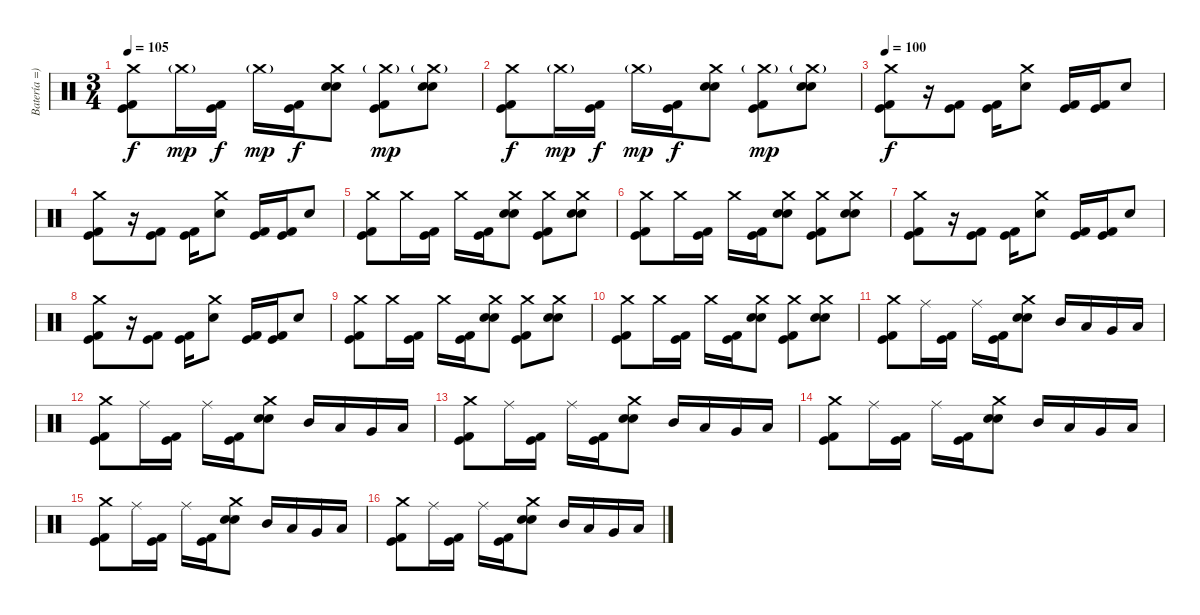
\track ("Batería =)" "Batería =)") {instrument percussion}
\staff {score}
\articulation defaults
\ts (3 4)
\tempo 105
\clef neutral
\ks c
("Crash medium (hit)" "Kick (hit)" "Kick (hit) 2").8{dy f} "Crash medium (hit)"{g}.16{dy mp} ("Kick (hit)" "Kick (hit) 2").16{dy f} "Crash medium (hit)"{g}.16{dy mp} ("Kick (hit)" "Kick (hit) 2").16{dy f} ("Crash medium (hit)" "Snare (hit) 2" "Electric Snare (hit)").8 ("Crash medium (hit)"{g} "Kick (hit)" "Kick (hit) 2").8{dy mp} ("Crash medium (hit)"{g} "Snare (hit) 2" "Electric Snare (hit)").8 |
("Crash medium (hit)" "Kick (hit)" "Kick (hit) 2").8{dy f} "Crash medium (hit)"{g}.16{dy mp} ("Kick (hit)" "Kick (hit) 2").16{dy f} "Crash medium (hit)"{g}.16{dy mp} ("Kick (hit)" "Kick (hit) 2").16{dy f} ("Crash medium (hit)" "Snare (hit) 2" "Electric Snare (hit)").8 ("Crash medium (hit)"{g} "Kick (hit)" "Kick (hit) 2").8{dy mp} ("Crash medium (hit)"{g} "Snare (hit) 2" "Electric Snare (hit)").8 |
\tempo 100
("Crash medium (hit)" "Kick (hit)" "Kick (hit) 2").8{dy f} r.16 ("Kick (hit)" "Kick (hit) 2").8 ("Kick (hit)" "Kick (hit) 2").16 ("Crash medium (hit)" "Electric Snare (hit)").8 ("Kick (hit)" "Kick (hit) 2").16 ("Kick (hit)" "Kick (hit) 2").16 "Electric Snare (hit)".8 |
("Crash medium (hit)" "Kick (hit)" "Kick (hit) 2").8 r.16 ("Kick (hit)" "Kick (hit) 2").8 ("Kick (hit)" "Kick (hit) 2").16 ("Crash medium (hit)" "Electric Snare (hit)").8 ("Kick (hit)" "Kick (hit) 2").16 ("Kick (hit)" "Kick (hit) 2").16 "Electric Snare (hit)".8 |
("Crash medium (hit)" "Kick (hit)" "Kick (hit) 2").8 "Crash medium (hit)".16 ("Kick (hit)" "Kick (hit) 2").16 "Crash medium (hit)".16 ("Kick (hit)" "Kick (hit) 2").16 ("Crash medium (hit)" "Snare (hit) 2" "Electric Snare (hit)").8 ("Crash medium (hit)" "Kick (hit)" "Kick (hit) 2").8 ("Crash medium (hit)" "Snare (hit) 2" "Electric Snare (hit)").8 |
("Crash medium (hit)" "Kick (hit)" "Kick (hit) 2").8 "Crash medium (hit)".16 ("Kick (hit)" "Kick (hit) 2").16 "Crash medium (hit)".16 ("Kick (hit)" "Kick (hit) 2").16 ("Crash medium (hit)" "Snare (hit) 2" "Electric Snare (hit)").8 ("Crash medium (hit)" "Kick (hit)" "Kick (hit) 2").8 ("Crash medium (hit)" "Snare (hit) 2" "Electric Snare (hit)").8 |
("Crash medium (hit)" "Kick (hit)" "Kick (hit) 2").8 r.16 ("Kick (hit)" "Kick (hit) 2").8 ("Kick (hit)" "Kick (hit) 2").16 ("Crash medium (hit)" "Electric Snare (hit)").8 ("Kick (hit)" "Kick (hit) 2").16 ("Kick (hit)" "Kick (hit) 2").16 "Electric Snare (hit)".8 |
("Crash medium (hit)" "Kick (hit)" "Kick (hit) 2").8 r.16 ("Kick (hit)" "Kick (hit) 2").8 ("Kick (hit)" "Kick (hit) 2").16 ("Crash medium (hit)" "Electric Snare (hit)").8 ("Kick (hit)" "Kick (hit) 2").16 ("Kick (hit)" "Kick (hit) 2").16 "Electric Snare (hit)".8 |
("Crash medium (hit)" "Kick (hit)" "Kick (hit) 2").8 "Crash medium (hit)".16 ("Kick (hit)" "Kick (hit) 2").16 "Crash medium (hit)".16 ("Kick (hit)" "Kick (hit) 2").16 ("Crash medium (hit)" "Snare (hit) 2" "Electric Snare (hit)").8 ("Crash medium (hit)" "Kick (hit)" "Kick (hit) 2").8 ("Crash medium (hit)" "Snare (hit) 2" "Electric Snare (hit)").8 |
("Crash medium (hit)" "Kick (hit)" "Kick (hit) 2").8 "Crash medium (hit)".16 ("Kick (hit)" "Kick (hit) 2").16 "Crash medium (hit)".16 ("Kick (hit)" "Kick (hit) 2").16 ("Crash medium (hit)" "Snare (hit) 2" "Electric Snare (hit)").8 ("Crash medium (hit)" "Kick (hit)" "Kick (hit) 2").8 ("Crash medium (hit)" "Snare (hit) 2" "Electric Snare (hit)").8 |
("Crash medium (hit)" "Kick (hit)" "Kick (hit) 2").8 "Ride (middle)".16 ("Kick (hit)" "Kick (hit) 2").16 "Ride (middle)".16 ("Kick (hit)" "Kick (hit) 2").16 ("Crash medium (hit)" "Snare (hit) 2" "Electric Snare (hit)").8 "Mid Tom (hit)".16 "Low Tom (hit)".16 "Very Low Tom (hit)".16 "Low Floor Tom (hit)".16 |
("Crash medium (hit)" "Kick (hit)" "Kick (hit) 2").8 "Ride (middle)".16 ("Kick (hit)" "Kick (hit) 2").16 "Ride (middle)".16 ("Kick (hit)" "Kick (hit) 2").16 ("Crash medium (hit)" "Snare (hit) 2" "Electric Snare (hit)").8 "Mid Tom (hit)".16 "Low Tom (hit)".16 "Very Low Tom (hit)".16 "Low Floor Tom (hit)".16 |
("Crash medium (hit)" "Kick (hit)" "Kick (hit) 2").8 "Ride (middle)".16 ("Kick (hit)" "Kick (hit) 2").16 "Ride (middle)".16 ("Kick (hit)" "Kick (hit) 2").16 ("Crash medium (hit)" "Snare (hit) 2" "Electric Snare (hit)").8 "Mid Tom (hit)".16 "Low Tom (hit)".16 "Very Low Tom (hit)".16 "Low Floor Tom (hit)".16 |
("Crash medium (hit)" "Kick (hit)" "Kick (hit) 2").8 "Ride (middle)".16 ("Kick (hit)" "Kick (hit) 2").16 "Ride (middle)".16 ("Kick (hit)" "Kick (hit) 2").16 ("Crash medium (hit)" "Snare (hit) 2" "Electric Snare (hit)").8 "Mid Tom (hit)".16 "Low Tom (hit)".16 "Very Low Tom (hit)".16 "Low Floor Tom (hit)".16 |
("Crash medium (hit)" "Kick (hit)" "Kick (hit) 2").8 "Ride (middle)".16 ("Kick (hit)" "Kick (hit) 2").16 "Ride (middle)".16 ("Kick (hit)" "Kick (hit) 2").16 ("Crash medium (hit)" "Snare (hit) 2" "Electric Snare (hit)").8 "Mid Tom (hit)".16 "Low Tom (hit)".16 "Very Low Tom (hit)".16 "Low Floor Tom (hit)".16 |
("Crash medium (hit)" "Kick (hit)" "Kick (hit) 2").8 "Ride (middle)".16 ("Kick (hit)" "Kick (hit) 2").16 "Ride (middle)".16 ("Kick (hit)" "Kick (hit) 2").16 ("Crash medium (hit)" "Snare (hit) 2" "Electric Snare (hit)").8 "Mid Tom (hit)".16 "Low Tom (hit)".16 "Very Low Tom (hit)".16 "Low Floor Tom (hit)".16
